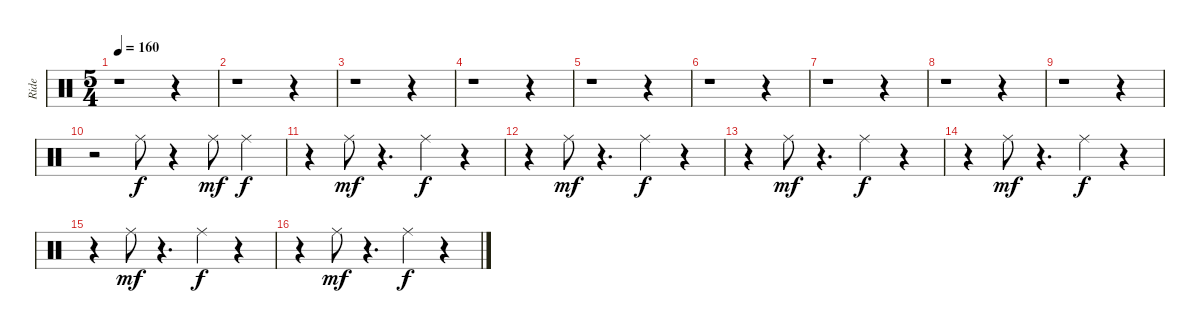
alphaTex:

\track ("Ride" "Ride") {instrument percussion}
\staff {score}
\articulation defaults
\ts (5 4)
\tempo 160
\clef neutral
\ks c
r.1{dy f} r.4 |
r.1 r.4 |
r.1 r.4 |
r.1 r.4 |
r.1 r.4 |
r.1 r.4 |
r.1 r.4 |
r.1 r.4 |
r.1 r.4 |
r.2 "Ride (middle)".8 r.4 "Ride (middle)".8{dy mf} "Ride (middle)".4{dy f} |
r.4 "Ride (middle)".8{dy mf} r.4{d} "Ride (middle)".4{dy f} r.4 |
r.4 "Ride (middle)".8{dy mf} r.4{d} "Ride (middle)".4{dy f} r.4 |
r.4 "Ride (middle)".8{dy mf} r.4{d} "Ride (middle)".4{dy f} r.4 |
r.4 "Ride (middle)".8{dy mf} r.4{d} "Ride (middle)".4{dy f} r.4 |
r.4 "Ride (middle)".8{dy mf} r.4{d} "Ride (middle)".4{dy f} r.4 |
r.4 "Ride (middle)".8{dy mf} r.4{d} "Ride (middle)".4{dy f} r.4
